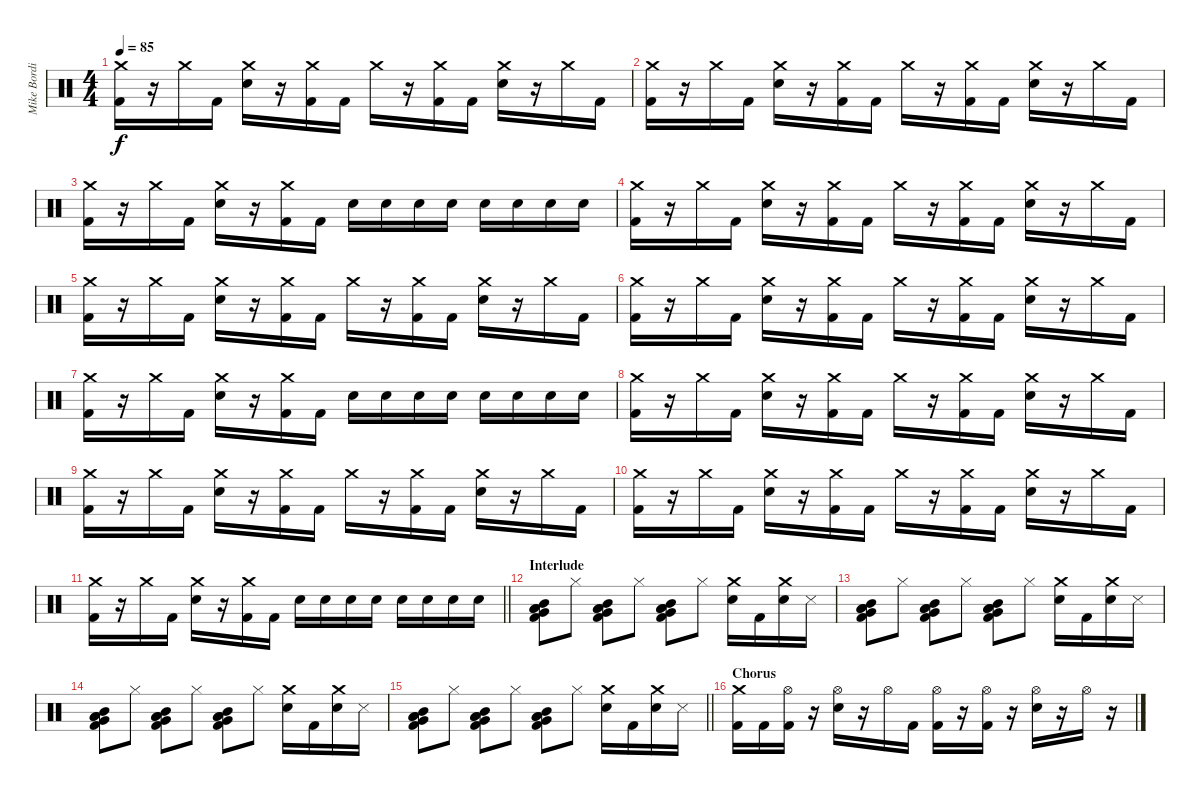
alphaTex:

\track ("Mike Bordin (Drums)" "Mike Bordi") {instrument percussion}
\staff {score}
\articulation defaults
\ts (4 4)
\tempo 85
\clef neutral
\ks c
("Crash medium (hit)" "Kick (hit) 2").16{dy f} r.16 "Crash medium (hit)".16 "Kick (hit) 2".16 ("Crash medium (hit)" "Snare (hit) 2").16 r.16 ("Crash medium (hit)" "Kick (hit) 2").16 "Kick (hit) 2".16 "Crash medium (hit)".16 r.16 ("Crash medium (hit)" "Kick (hit) 2").16 "Kick (hit) 2".16 ("Crash medium (hit)" "Snare (hit) 2").16 r.16 "Crash medium (hit)".16 "Kick (hit) 2".16 |
("Crash medium (hit)" "Kick (hit) 2").16 r.16 "Crash medium (hit)".16 "Kick (hit) 2".16 ("Crash medium (hit)" "Snare (hit) 2").16 r.16 ("Crash medium (hit)" "Kick (hit) 2").16 "Kick (hit) 2".16 "Crash medium (hit)".16 r.16 ("Crash medium (hit)" "Kick (hit) 2").16 "Kick (hit) 2".16 ("Crash medium (hit)" "Snare (hit) 2").16 r.16 "Crash medium (hit)".16 "Kick (hit) 2".16 |
("Crash medium (hit)" "Kick (hit) 2").16 r.16 "Crash medium (hit)".16 "Kick (hit) 2".16 ("Crash medium (hit)" "Snare (hit) 2").16 r.16 ("Crash medium (hit)" "Kick (hit) 2").16 "Kick (hit) 2".16 "Snare (hit) 2".16 "Snare (hit) 2".16 "Snare (hit) 2".16 "Snare (hit) 2".16 "Snare (hit) 2".16 "Snare (hit) 2".16 "Snare (hit) 2".16 "Snare (hit) 2".16 |
("Crash medium (hit)" "Kick (hit) 2").16 r.16 "Crash medium (hit)".16 "Kick (hit) 2".16 ("Crash medium (hit)" "Snare (hit) 2").16 r.16 ("Crash medium (hit)" "Kick (hit) 2").16 "Kick (hit) 2".16 "Crash medium (hit)".16 r.16 ("Crash medium (hit)" "Kick (hit) 2").16 "Kick (hit) 2".16 ("Crash medium (hit)" "Snare (hit) 2").16 r.16 "Crash medium (hit)".16 "Kick (hit) 2".16 |
("Crash medium (hit)" "Kick (hit) 2").16 r.16 "Crash medium (hit)".16 "Kick (hit) 2".16 ("Crash medium (hit)" "Snare (hit) 2").16 r.16 ("Crash medium (hit)" "Kick (hit) 2").16 "Kick (hit) 2".16 "Crash medium (hit)".16 r.16 ("Crash medium (hit)" "Kick (hit) 2").16 "Kick (hit) 2".16 ("Crash medium (hit)" "Snare (hit) 2").16 r.16 "Crash medium (hit)".16 "Kick (hit) 2".16 |
("Crash medium (hit)" "Kick (hit) 2").16 r.16 "Crash medium (hit)".16 "Kick (hit) 2".16 ("Crash medium (hit)" "Snare (hit) 2").16 r.16 ("Crash medium (hit)" "Kick (hit) 2").16 "Kick (hit) 2".16 "Crash medium (hit)".16 r.16 ("Crash medium (hit)" "Kick (hit) 2").16 "Kick (hit) 2".16 ("Crash medium (hit)" "Snare (hit) 2").16 r.16 "Crash medium (hit)".16 "Kick (hit) 2".16 |
("Crash medium (hit)" "Kick (hit) 2").16 r.16 "Crash medium (hit)".16 "Kick (hit) 2".16 ("Crash medium (hit)" "Snare (hit) 2").16 r.16 ("Crash medium (hit)" "Kick (hit) 2").16 "Kick (hit) 2".16 "Snare (hit) 2".16 "Snare (hit) 2".16 "Snare (hit) 2".16 "Snare (hit) 2".16 "Snare (hit) 2".16 "Snare (hit) 2".16 "Snare (hit) 2".16 "Snare (hit) 2".16 |
("Crash medium (hit)" "Kick (hit) 2").16 r.16 "Crash medium (hit)".16 "Kick (hit) 2".16 ("Crash medium (hit)" "Snare (hit) 2").16 r.16 ("Crash medium (hit)" "Kick (hit) 2").16 "Kick (hit) 2".16 "Crash medium (hit)".16 r.16 ("Crash medium (hit)" "Kick (hit) 2").16 "Kick (hit) 2".16 ("Crash medium (hit)" "Snare (hit) 2").16 r.16 "Crash medium (hit)".16 "Kick (hit) 2".16 |
("Crash medium (hit)" "Kick (hit) 2").16 r.16 "Crash medium (hit)".16 "Kick (hit) 2".16 ("Crash medium (hit)" "Snare (hit) 2").16 r.16 ("Crash medium (hit)" "Kick (hit) 2").16 "Kick (hit) 2".16 "Crash medium (hit)".16 r.16 ("Crash medium (hit)" "Kick (hit) 2").16 "Kick (hit) 2".16 ("Crash medium (hit)" "Snare (hit) 2").16 r.16 "Crash medium (hit)".16 "Kick (hit) 2".16 |
("Crash medium (hit)" "Kick (hit) 2").16 r.16 "Crash medium (hit)".16 "Kick (hit) 2".16 ("Crash medium (hit)" "Snare (hit) 2").16 r.16 ("Crash medium (hit)" "Kick (hit) 2").16 "Kick (hit) 2".16 "Crash medium (hit)".16 r.16 ("Crash medium (hit)" "Kick (hit) 2").16 "Kick (hit) 2".16 ("Crash medium (hit)" "Snare (hit) 2").16 r.16 "Crash medium (hit)".16 "Kick (hit) 2".16 |
\barLineRight lightlight
("Crash medium (hit)" "Kick (hit) 2").16 r.16 "Crash medium (hit)".16 "Kick (hit) 2".16 ("Crash medium (hit)" "Snare (hit) 2").16 r.16 ("Crash medium (hit)" "Kick (hit) 2").16 "Kick (hit) 2".16 "Snare (hit) 2".16 "Snare (hit) 2".16 "Snare (hit) 2".16 "Snare (hit) 2".16 "Snare (hit) 2".16 "Snare (hit) 2".16 "Snare (hit) 2".16 "Snare (hit) 2".16 |
\section ("" "Interlude")
("Mid Tom (hit)" "Low Floor Tom (hit)" "Very Low Tom (hit)" "Low Tom (hit)" "Kick (hit) 2").8 "Hi-Hat (closed)".8 ("Mid Tom (hit)" "Low Floor Tom (hit)" "Very Low Tom (hit)" "Low Tom (hit)" "Kick (hit) 2").8 "Hi-Hat (closed)".8 ("Mid Tom (hit)" "Low Floor Tom (hit)" "Very Low Tom (hit)" "Low Tom (hit)" "Kick (hit) 2").8 "Hi-Hat (closed)".8 ("Crash medium (hit)" "Snare (hit) 2").16 "Kick (hit) 2".16 ("Crash medium (hit)" "Snare (hit) 2").16 "Snare (side stick) 3".16 |
("Mid Tom (hit)" "Low Floor Tom (hit)" "Very Low Tom (hit)" "Low Tom (hit)" "Kick (hit) 2").8 "Hi-Hat (closed)".8 ("Mid Tom (hit)" "Low Floor Tom (hit)" "Very Low Tom (hit)" "Low Tom (hit)" "Kick (hit) 2").8 "Hi-Hat (closed)".8 ("Mid Tom (hit)" "Low Floor Tom (hit)" "Very Low Tom (hit)" "Low Tom (hit)" "Kick (hit) 2").8 "Hi-Hat (closed)".8 ("Crash medium (hit)" "Snare (hit) 2").16 "Kick (hit) 2".16 ("Crash medium (hit)" "Snare (hit) 2").16 "Snare (side stick) 3".16 |
("Mid Tom (hit)" "Low Floor Tom (hit)" "Very Low Tom (hit)" "Low Tom (hit)" "Kick (hit) 2").8 "Hi-Hat (closed)".8 ("Mid Tom (hit)" "Low Floor Tom (hit)" "Very Low Tom (hit)" "Low Tom (hit)" "Kick (hit) 2").8 "Hi-Hat (closed)".8 ("Mid Tom (hit)" "Low Floor Tom (hit)" "Very Low Tom (hit)" "Low Tom (hit)" "Kick (hit) 2").8 "Hi-Hat (closed)".8 ("Crash medium (hit)" "Snare (hit) 2").16 "Kick (hit) 2".16 ("Crash medium (hit)" "Snare (hit) 2").16 "Snare (side stick) 3".16 |
\barLineRight lightlight
("Mid Tom (hit)" "Low Floor Tom (hit)" "Very Low Tom (hit)" "Low Tom (hit)" "Kick (hit) 2").8 "Hi-Hat (closed)".8 ("Mid Tom (hit)" "Low Floor Tom (hit)" "Very Low Tom (hit)" "Low Tom (hit)" "Kick (hit) 2").8 "Hi-Hat (closed)".8 ("Mid Tom (hit)" "Low Floor Tom (hit)" "Very Low Tom (hit)" "Low Tom (hit)" "Kick (hit) 2").8 "Hi-Hat (closed)".8 ("Crash medium (hit)" "Snare (hit) 2").16 "Kick (hit) 2".16 ("Crash medium (hit)" "Snare (hit) 2").16 "Snare (side stick) 3".16 |
\section ("" "Chorus")
("Crash medium (hit)" "Kick (hit) 2").16 "Kick (hit) 2".16 ("Hi-Hat (open)" "Kick (hit) 2").16 r.16 ("Hi-Hat (open)" "Snare (hit) 2").16 r.16 "Hi-Hat (open)".16 "Kick (hit) 2".16 ("Hi-Hat (open)" "Kick (hit) 2").16 r.16 ("Hi-Hat (open)" "Kick (hit) 2").16 r.16 ("Hi-Hat (open)" "Snare (hit) 2").16 r.16 "Hi-Hat (open)".16 r.16
